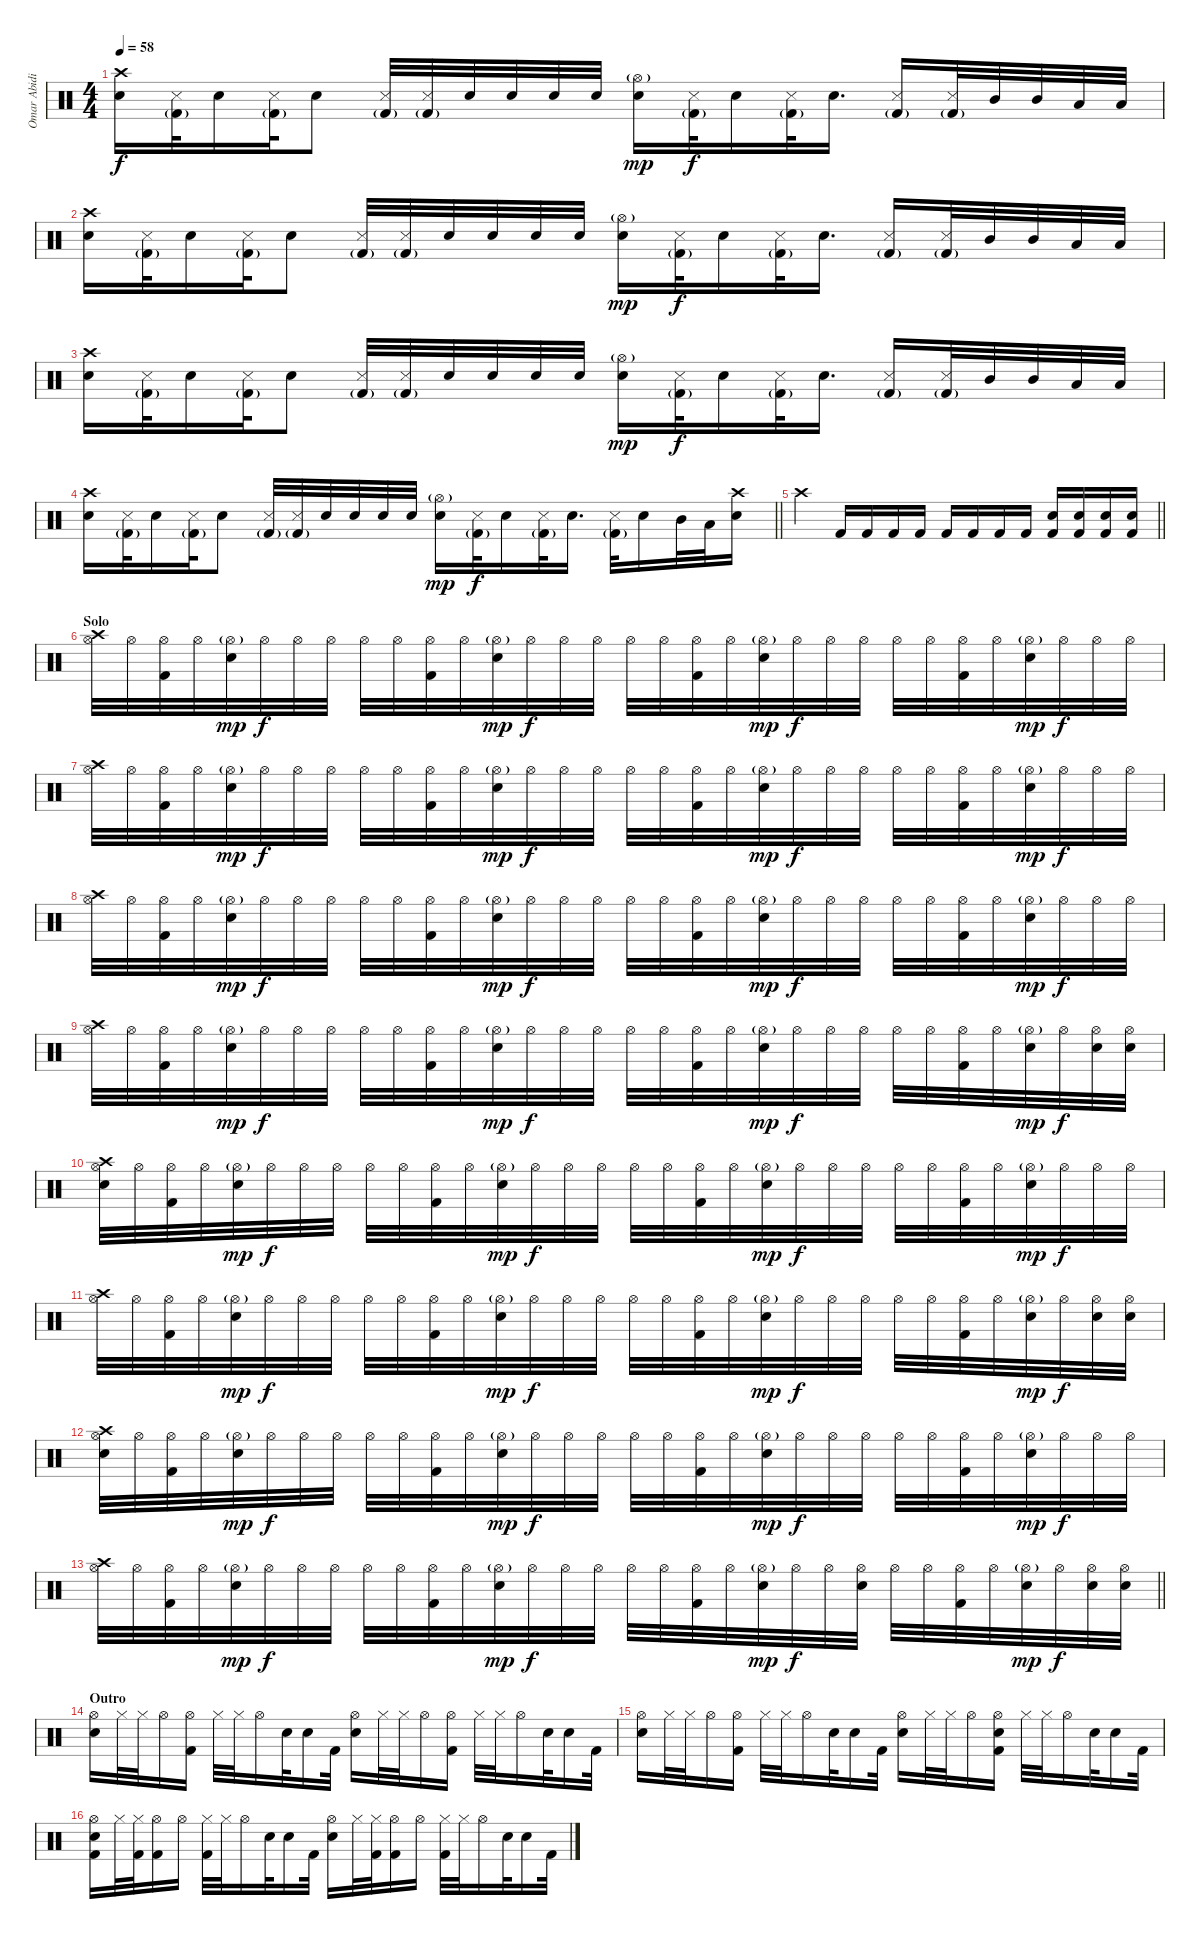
\track ("Omar Abidi" "Omar Abidi") {instrument percussion}
\staff {score}
\articulation defaults
\ts (4 4)
\tempo 58
\clef neutral
\ks c
("Crash high (hit)" "Electric Snare (hit)").16{dy f} ("Metronome (hit)" "Kick (hit) 2"{g}).32 "Electric Snare (hit)".16 ("Metronome (hit)" "Kick (hit) 2"{g}).32 "Electric Snare (hit)".8 ("Metronome (hit)" "Kick (hit) 2"{g}).32 ("Metronome (hit)" "Kick (hit) 2"{g}).32 "Electric Snare (hit)".32 "Electric Snare (hit)".32 "Electric Snare (hit)".32 "Electric Snare (hit)".32 ("Hi-Hat (open)"{g} "Electric Snare (hit)").16{dy mp} ("Metronome (hit)" "Kick (hit) 2"{g}).32{dy f} "Electric Snare (hit)".16 ("Metronome (hit)" "Kick (hit) 2"{g}).32 "Electric Snare (hit)".16{d} ("Metronome (hit)" "Kick (hit) 2"{g}).16 ("Metronome (hit)" "Kick (hit) 2"{g}).32 "Mid Tom (hit)".32 "Mid Tom (hit)".32 "Low Tom (hit)".32 "Low Tom (hit)".32 |
("Crash high (hit)" "Electric Snare (hit)").16 ("Metronome (hit)" "Kick (hit) 2"{g}).32 "Electric Snare (hit)".16 ("Metronome (hit)" "Kick (hit) 2"{g}).32 "Electric Snare (hit)".8 ("Metronome (hit)" "Kick (hit) 2"{g}).32 ("Metronome (hit)" "Kick (hit) 2"{g}).32 "Electric Snare (hit)".32 "Electric Snare (hit)".32 "Electric Snare (hit)".32 "Electric Snare (hit)".32 ("Hi-Hat (open)"{g} "Electric Snare (hit)").16{dy mp} ("Metronome (hit)" "Kick (hit) 2"{g}).32{dy f} "Electric Snare (hit)".16 ("Metronome (hit)" "Kick (hit) 2"{g}).32 "Electric Snare (hit)".16{d} ("Metronome (hit)" "Kick (hit) 2"{g}).16 ("Metronome (hit)" "Kick (hit) 2"{g}).32 "Mid Tom (hit)".32 "Mid Tom (hit)".32 "Low Tom (hit)".32 "Low Tom (hit)".32 |
("Crash high (hit)" "Electric Snare (hit)").16 ("Metronome (hit)" "Kick (hit) 2"{g}).32 "Electric Snare (hit)".16 ("Metronome (hit)" "Kick (hit) 2"{g}).32 "Electric Snare (hit)".8 ("Metronome (hit)" "Kick (hit) 2"{g}).32 ("Metronome (hit)" "Kick (hit) 2"{g}).32 "Electric Snare (hit)".32 "Electric Snare (hit)".32 "Electric Snare (hit)".32 "Electric Snare (hit)".32 ("Hi-Hat (open)"{g} "Electric Snare (hit)").16{dy mp} ("Metronome (hit)" "Kick (hit) 2"{g}).32{dy f} "Electric Snare (hit)".16 ("Metronome (hit)" "Kick (hit) 2"{g}).32 "Electric Snare (hit)".16{d} ("Metronome (hit)" "Kick (hit) 2"{g}).16 ("Metronome (hit)" "Kick (hit) 2"{g}).32 "Mid Tom (hit)".32 "Mid Tom (hit)".32 "Low Tom (hit)".32 "Low Tom (hit)".32 |
\barLineRight lightlight
("Crash high (hit)" "Electric Snare (hit)").16 ("Metronome (hit)" "Kick (hit) 2"{g}).32 "Electric Snare (hit)".16 ("Metronome (hit)" "Kick (hit) 2"{g}).32 "Electric Snare (hit)".8 ("Metronome (hit)" "Kick (hit) 2"{g}).32 ("Metronome (hit)" "Kick (hit) 2"{g}).32 "Electric Snare (hit)".32 "Electric Snare (hit)".32 "Electric Snare (hit)".32 "Electric Snare (hit)".32 ("Hi-Hat (open)"{g} "Electric Snare (hit)").16{dy mp} ("Metronome (hit)" "Kick (hit) 2"{g}).32{dy f} "Electric Snare (hit)".16 ("Metronome (hit)" "Kick (hit) 2"{g}).32 "Electric Snare (hit)".16{d} ("Metronome (hit)" "Kick (hit) 2"{g}).32 "Electric Snare (hit)".16 "Mid Tom (hit)".32 "Low Tom (hit)".32 ("Crash high (hit)" "Electric Snare (hit)").16 |
\barLineRight lightlight "Crash high (hit)".4 "Kick (hit) 2".16 "Kick (hit) 2".16 "Kick (hit) 2".16 "Kick (hit) 2".16 "Kick (hit) 2".16 "Kick (hit) 2".16 "Kick (hit) 2".16 "Kick (hit) 2".16
("Electric Snare (hit)" "Kick (hit) 2").16 ("Electric Snare (hit)" "Kick (hit) 2").16 ("Electric Snare (hit)" "Kick (hit) 2").16 ("Electric Snare (hit)" "Kick (hit) 2").16 |
\section ("" "Solo")
("Crash high (hit)" "Hi-Hat (open)").32 "Hi-Hat (open)".32 ("Hi-Hat (open)" "Kick (hit) 2").32 "Hi-Hat (open)".32 ("Electric Snare (hit)" "Hi-Hat (open)"{g}).32{dy mp} "Hi-Hat (open)".32{dy f} "Hi-Hat (open)".32 "Hi-Hat (open)".32 "Hi-Hat (open)".32 "Hi-Hat (open)".32 ("Hi-Hat (open)" "Kick (hit) 2").32 "Hi-Hat (open)".32 ("Electric Snare (hit)" "Hi-Hat (open)"{g}).32{dy mp} "Hi-Hat (open)".32{dy f} "Hi-Hat (open)".32 "Hi-Hat (open)".32 "Hi-Hat (open)".32 "Hi-Hat (open)".32 ("Hi-Hat (open)" "Kick (hit) 2").32 "Hi-Hat (open)".32 ("Electric Snare (hit)" "Hi-Hat (open)"{g}).32{dy mp} "Hi-Hat (open)".32{dy f} "Hi-Hat (open)".32 "Hi-Hat (open)".32 "Hi-Hat (open)".32 "Hi-Hat (open)".32 ("Hi-Hat (open)" "Kick (hit) 2").32 "Hi-Hat (open)".32 ("Electric Snare (hit)" "Hi-Hat (open)"{g}).32{dy mp} "Hi-Hat (open)".32{dy f} "Hi-Hat (open)".32 "Hi-Hat (open)".32 |
("Crash high (hit)" "Hi-Hat (open)").32 "Hi-Hat (open)".32 ("Hi-Hat (open)" "Kick (hit) 2").32 "Hi-Hat (open)".32 ("Electric Snare (hit)" "Hi-Hat (open)"{g}).32{dy mp} "Hi-Hat (open)".32{dy f} "Hi-Hat (open)".32 "Hi-Hat (open)".32 "Hi-Hat (open)".32 "Hi-Hat (open)".32 ("Hi-Hat (open)" "Kick (hit) 2").32 "Hi-Hat (open)".32 ("Electric Snare (hit)" "Hi-Hat (open)"{g}).32{dy mp} "Hi-Hat (open)".32{dy f} "Hi-Hat (open)".32 "Hi-Hat (open)".32 "Hi-Hat (open)".32 "Hi-Hat (open)".32 ("Hi-Hat (open)" "Kick (hit) 2").32 "Hi-Hat (open)".32 ("Electric Snare (hit)" "Hi-Hat (open)"{g}).32{dy mp} "Hi-Hat (open)".32{dy f} "Hi-Hat (open)".32 "Hi-Hat (open)".32 "Hi-Hat (open)".32 "Hi-Hat (open)".32 ("Hi-Hat (open)" "Kick (hit) 2").32 "Hi-Hat (open)".32 ("Electric Snare (hit)" "Hi-Hat (open)"{g}).32{dy mp} "Hi-Hat (open)".32{dy f} "Hi-Hat (open)".32 "Hi-Hat (open)".32 |
("Crash high (hit)" "Hi-Hat (open)").32 "Hi-Hat (open)".32 ("Hi-Hat (open)" "Kick (hit) 2").32 "Hi-Hat (open)".32 ("Electric Snare (hit)" "Hi-Hat (open)"{g}).32{dy mp} "Hi-Hat (open)".32{dy f} "Hi-Hat (open)".32 "Hi-Hat (open)".32 "Hi-Hat (open)".32 "Hi-Hat (open)".32 ("Hi-Hat (open)" "Kick (hit) 2").32 "Hi-Hat (open)".32 ("Electric Snare (hit)" "Hi-Hat (open)"{g}).32{dy mp} "Hi-Hat (open)".32{dy f} "Hi-Hat (open)".32 "Hi-Hat (open)".32 "Hi-Hat (open)".32 "Hi-Hat (open)".32 ("Hi-Hat (open)" "Kick (hit) 2").32 "Hi-Hat (open)".32 ("Electric Snare (hit)" "Hi-Hat (open)"{g}).32{dy mp} "Hi-Hat (open)".32{dy f} "Hi-Hat (open)".32 "Hi-Hat (open)".32 "Hi-Hat (open)".32 "Hi-Hat (open)".32 ("Hi-Hat (open)" "Kick (hit) 2").32 "Hi-Hat (open)".32 ("Electric Snare (hit)" "Hi-Hat (open)"{g}).32{dy mp} "Hi-Hat (open)".32{dy f} "Hi-Hat (open)".32 "Hi-Hat (open)".32 |
("Crash high (hit)" "Hi-Hat (open)").32 "Hi-Hat (open)".32 ("Hi-Hat (open)" "Kick (hit) 2").32 "Hi-Hat (open)".32 ("Electric Snare (hit)" "Hi-Hat (open)"{g}).32{dy mp} "Hi-Hat (open)".32{dy f} "Hi-Hat (open)".32 "Hi-Hat (open)".32 "Hi-Hat (open)".32 "Hi-Hat (open)".32 ("Hi-Hat (open)" "Kick (hit) 2").32 "Hi-Hat (open)".32 ("Electric Snare (hit)" "Hi-Hat (open)"{g}).32{dy mp} "Hi-Hat (open)".32{dy f} "Hi-Hat (open)".32 "Hi-Hat (open)".32 "Hi-Hat (open)".32 "Hi-Hat (open)".32 ("Hi-Hat (open)" "Kick (hit) 2").32 "Hi-Hat (open)".32 ("Electric Snare (hit)" "Hi-Hat (open)"{g}).32{dy mp} "Hi-Hat (open)".32{dy f} "Hi-Hat (open)".32 "Hi-Hat (open)".32 "Hi-Hat (open)".32 "Hi-Hat (open)".32 ("Hi-Hat (open)" "Kick (hit) 2").32 "Hi-Hat (open)".32 ("Electric Snare (hit)" "Hi-Hat (open)"{g}).32{dy mp} "Hi-Hat (open)".32{dy f} ("Electric Snare (hit)" "Hi-Hat (open)").32 ("Electric Snare (hit)" "Hi-Hat (open)").32 |
("Crash high (hit)" "Electric Snare (hit)" "Hi-Hat (open)").32 "Hi-Hat (open)".32 ("Hi-Hat (open)" "Kick (hit) 2").32 "Hi-Hat (open)".32 ("Electric Snare (hit)" "Hi-Hat (open)"{g}).32{dy mp} "Hi-Hat (open)".32{dy f} "Hi-Hat (open)".32 "Hi-Hat (open)".32 "Hi-Hat (open)".32 "Hi-Hat (open)".32 ("Hi-Hat (open)" "Kick (hit) 2").32 "Hi-Hat (open)".32 ("Electric Snare (hit)" "Hi-Hat (open)"{g}).32{dy mp} "Hi-Hat (open)".32{dy f} "Hi-Hat (open)".32 "Hi-Hat (open)".32 "Hi-Hat (open)".32 "Hi-Hat (open)".32 ("Hi-Hat (open)" "Kick (hit) 2").32 "Hi-Hat (open)".32 ("Electric Snare (hit)" "Hi-Hat (open)"{g}).32{dy mp} "Hi-Hat (open)".32{dy f} "Hi-Hat (open)".32 "Hi-Hat (open)".32 "Hi-Hat (open)".32 "Hi-Hat (open)".32 ("Hi-Hat (open)" "Kick (hit) 2").32 "Hi-Hat (open)".32 ("Electric Snare (hit)" "Hi-Hat (open)"{g}).32{dy mp} "Hi-Hat (open)".32{dy f} "Hi-Hat (open)".32 "Hi-Hat (open)".32 |
("Crash high (hit)" "Hi-Hat (open)").32 "Hi-Hat (open)".32 ("Hi-Hat (open)" "Kick (hit) 2").32 "Hi-Hat (open)".32 ("Electric Snare (hit)" "Hi-Hat (open)"{g}).32{dy mp} "Hi-Hat (open)".32{dy f} "Hi-Hat (open)".32 "Hi-Hat (open)".32 "Hi-Hat (open)".32 "Hi-Hat (open)".32 ("Hi-Hat (open)" "Kick (hit) 2").32 "Hi-Hat (open)".32 ("Electric Snare (hit)" "Hi-Hat (open)"{g}).32{dy mp} "Hi-Hat (open)".32{dy f} "Hi-Hat (open)".32 "Hi-Hat (open)".32 "Hi-Hat (open)".32 "Hi-Hat (open)".32 ("Hi-Hat (open)" "Kick (hit) 2").32 "Hi-Hat (open)".32 ("Electric Snare (hit)" "Hi-Hat (open)"{g}).32{dy mp} "Hi-Hat (open)".32{dy f} "Hi-Hat (open)".32 "Hi-Hat (open)".32 "Hi-Hat (open)".32 "Hi-Hat (open)".32 ("Hi-Hat (open)" "Kick (hit) 2").32 "Hi-Hat (open)".32 ("Electric Snare (hit)" "Hi-Hat (open)"{g}).32{dy mp} "Hi-Hat (open)".32{dy f} ("Electric Snare (hit)" "Hi-Hat (open)").32 ("Electric Snare (hit)" "Hi-Hat (open)").32 |
("Crash high (hit)" "Electric Snare (hit)" "Hi-Hat (open)").32 "Hi-Hat (open)".32 ("Hi-Hat (open)" "Kick (hit) 2").32 "Hi-Hat (open)".32 ("Electric Snare (hit)" "Hi-Hat (open)"{g}).32{dy mp} "Hi-Hat (open)".32{dy f} "Hi-Hat (open)".32 "Hi-Hat (open)".32 "Hi-Hat (open)".32 "Hi-Hat (open)".32 ("Hi-Hat (open)" "Kick (hit) 2").32 "Hi-Hat (open)".32 ("Electric Snare (hit)" "Hi-Hat (open)"{g}).32{dy mp} "Hi-Hat (open)".32{dy f} "Hi-Hat (open)".32 "Hi-Hat (open)".32 "Hi-Hat (open)".32 "Hi-Hat (open)".32 ("Hi-Hat (open)" "Kick (hit) 2").32 "Hi-Hat (open)".32 ("Electric Snare (hit)" "Hi-Hat (open)"{g}).32{dy mp} "Hi-Hat (open)".32{dy f} "Hi-Hat (open)".32 "Hi-Hat (open)".32 "Hi-Hat (open)".32 "Hi-Hat (open)".32 ("Hi-Hat (open)" "Kick (hit) 2").32 "Hi-Hat (open)".32 ("Electric Snare (hit)" "Hi-Hat (open)"{g}).32{dy mp} "Hi-Hat (open)".32{dy f} "Hi-Hat (open)".32 "Hi-Hat (open)".32 |
\barLineRight lightlight
("Crash high (hit)" "Hi-Hat (open)").32 "Hi-Hat (open)".32 ("Hi-Hat (open)" "Kick (hit) 2").32 "Hi-Hat (open)".32 ("Electric Snare (hit)" "Hi-Hat (open)"{g}).32{dy mp} "Hi-Hat (open)".32{dy f} "Hi-Hat (open)".32 "Hi-Hat (open)".32 "Hi-Hat (open)".32 "Hi-Hat (open)".32 ("Hi-Hat (open)" "Kick (hit) 2").32 "Hi-Hat (open)".32 ("Electric Snare (hit)" "Hi-Hat (open)"{g}).32{dy mp} "Hi-Hat (open)".32{dy f} "Hi-Hat (open)".32 "Hi-Hat (open)".32 "Hi-Hat (open)".32 "Hi-Hat (open)".32 ("Hi-Hat (open)" "Kick (hit) 2").32 "Hi-Hat (open)".32 ("Electric Snare (hit)" "Hi-Hat (open)"{g}).32{dy mp} "Hi-Hat (open)".32{dy f} "Hi-Hat (open)".32 ("Electric Snare (hit)" "Hi-Hat (open)").32 "Hi-Hat (open)".32 "Hi-Hat (open)".32 ("Hi-Hat (open)" "Kick (hit) 2").32 "Hi-Hat (open)".32 ("Electric Snare (hit)" "Hi-Hat (open)"{g}).32{dy mp} "Hi-Hat (open)".32{dy f} ("Electric Snare (hit)" "Hi-Hat (open)").32 ("Electric Snare (hit)" "Hi-Hat (open)").32 |
\section ("" "Outro")
("Hi-Hat (open)" "Electric Snare (hit)").16 "Hi-Hat (closed)".32 "Hi-Hat (closed)".32 "Hi-Hat (open)".16 ("Hi-Hat (open)" "Kick (hit) 2").16 "Hi-Hat (closed)".32 "Hi-Hat (closed)".32 "Hi-Hat (open)".16 "Electric Snare (hit)".32 "Electric Snare (hit)".16 "Kick (hit) 2".32 ("Hi-Hat (open)" "Electric Snare (hit)").16 "Hi-Hat (closed)".32 "Hi-Hat (closed)".32 "Hi-Hat (open)".16 ("Hi-Hat (open)" "Kick (hit) 2").16 "Hi-Hat (closed)".32 "Hi-Hat (closed)".32 "Hi-Hat (open)".16 "Electric Snare (hit)".32 "Electric Snare (hit)".16 "Kick (hit) 2".32 |
("Hi-Hat (open)" "Electric Snare (hit)").16 "Hi-Hat (closed)".32 "Hi-Hat (closed)".32 "Hi-Hat (open)".16 ("Hi-Hat (open)" "Kick (hit) 2").16 "Hi-Hat (closed)".32 "Hi-Hat (closed)".32 "Hi-Hat (open)".16 "Electric Snare (hit)".32 "Electric Snare (hit)".16 "Kick (hit) 2".32 ("Hi-Hat (open)" "Electric Snare (hit)").16 "Hi-Hat (closed)".32 "Hi-Hat (closed)".32 "Hi-Hat (open)".16 ("Hi-Hat (open)" "Electric Snare (hit)" "Kick (hit) 2").16 "Hi-Hat (closed)".32 "Hi-Hat (closed)".32 "Hi-Hat (open)".16 "Electric Snare (hit)".32 "Electric Snare (hit)".16 "Kick (hit) 2".32 |
("Hi-Hat (open)" "Electric Snare (hit)" "Kick (hit) 2").16 "Hi-Hat (closed)".32 ("Hi-Hat (closed)" "Kick (hit) 2").32 ("Hi-Hat (open)" "Kick (hit) 2").16 "Hi-Hat (open)".16 ("Hi-Hat (closed)" "Kick (hit) 2").32 "Hi-Hat (closed)".32 "Hi-Hat (open)".16 "Electric Snare (hit)".32 "Electric Snare (hit)".16 "Kick (hit) 2".32 ("Hi-Hat (open)" "Electric Snare (hit)").16 "Hi-Hat (closed)".32 ("Hi-Hat (closed)" "Kick (hit) 2").32 ("Hi-Hat (open)" "Kick (hit) 2").16 "Hi-Hat (open)".16 ("Hi-Hat (closed)" "Kick (hit) 2").32 "Hi-Hat (closed)".32 "Hi-Hat (open)".16 "Electric Snare (hit)".32 "Electric Snare (hit)".16 "Kick (hit) 2".32
